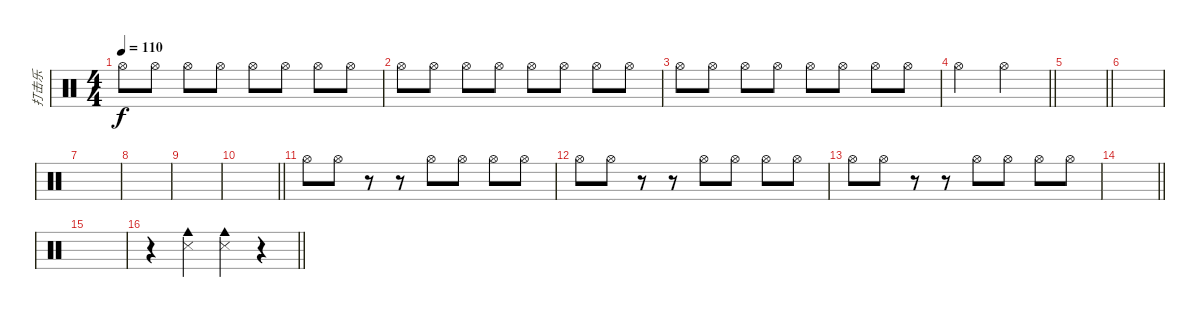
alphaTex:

\track ("打击乐" "打击乐") {instrument percussion}
\staff {score}
\articulation defaults
\ts (4 4)
\tempo 110
\clef neutral
\ks c "Hi-Hat (open)".8{dy f} "Hi-Hat (open)".8 "Hi-Hat (open)".8 "Hi-Hat (open)".8 "Hi-Hat (open)".8 "Hi-Hat (open)".8 "Hi-Hat (open)".8 "Hi-Hat (open)".8
|
"Hi-Hat (open)".8 "Hi-Hat (open)".8 "Hi-Hat (open)".8 "Hi-Hat (open)".8 "Hi-Hat (open)".8 "Hi-Hat (open)".8 "Hi-Hat (open)".8 "Hi-Hat (open)".8 |
"Hi-Hat (open)".8 "Hi-Hat (open)".8 "Hi-Hat (open)".8 "Hi-Hat (open)".8 "Hi-Hat (open)".8 "Hi-Hat (open)".8 "Hi-Hat (open)".8 "Hi-Hat (open)".8 |
\barLineRight lightlight "Hi-Hat (open)".2 "Hi-Hat (open)".2
|
\barLineRight lightlight
|
|
|
|
|
\barLineRight lightlight
|
"Hi-Hat (open)".8 "Hi-Hat (open)".8 r.8 r.8 "Hi-Hat (open)".8 "Hi-Hat (open)".8 "Hi-Hat (open)".8 "Hi-Hat (open)".8 |
"Hi-Hat (open)".8 "Hi-Hat (open)".8 r.8 r.8 "Hi-Hat (open)".8 "Hi-Hat (open)".8 "Hi-Hat (open)".8 "Hi-Hat (open)".8 |
"Hi-Hat (open)".8 "Hi-Hat (open)".8 r.8 r.8 "Hi-Hat (open)".8 "Hi-Hat (open)".8 "Hi-Hat (open)".8 "Hi-Hat (open)".8 |
\barLineRight lightlight
|
|
\barLineRight lightlight
r.4 ("Cowbell medium (hit)" "Snare (side stick) 3").4 ("Cowbell medium (hit)" "Snare (side stick) 3").4 r.4
